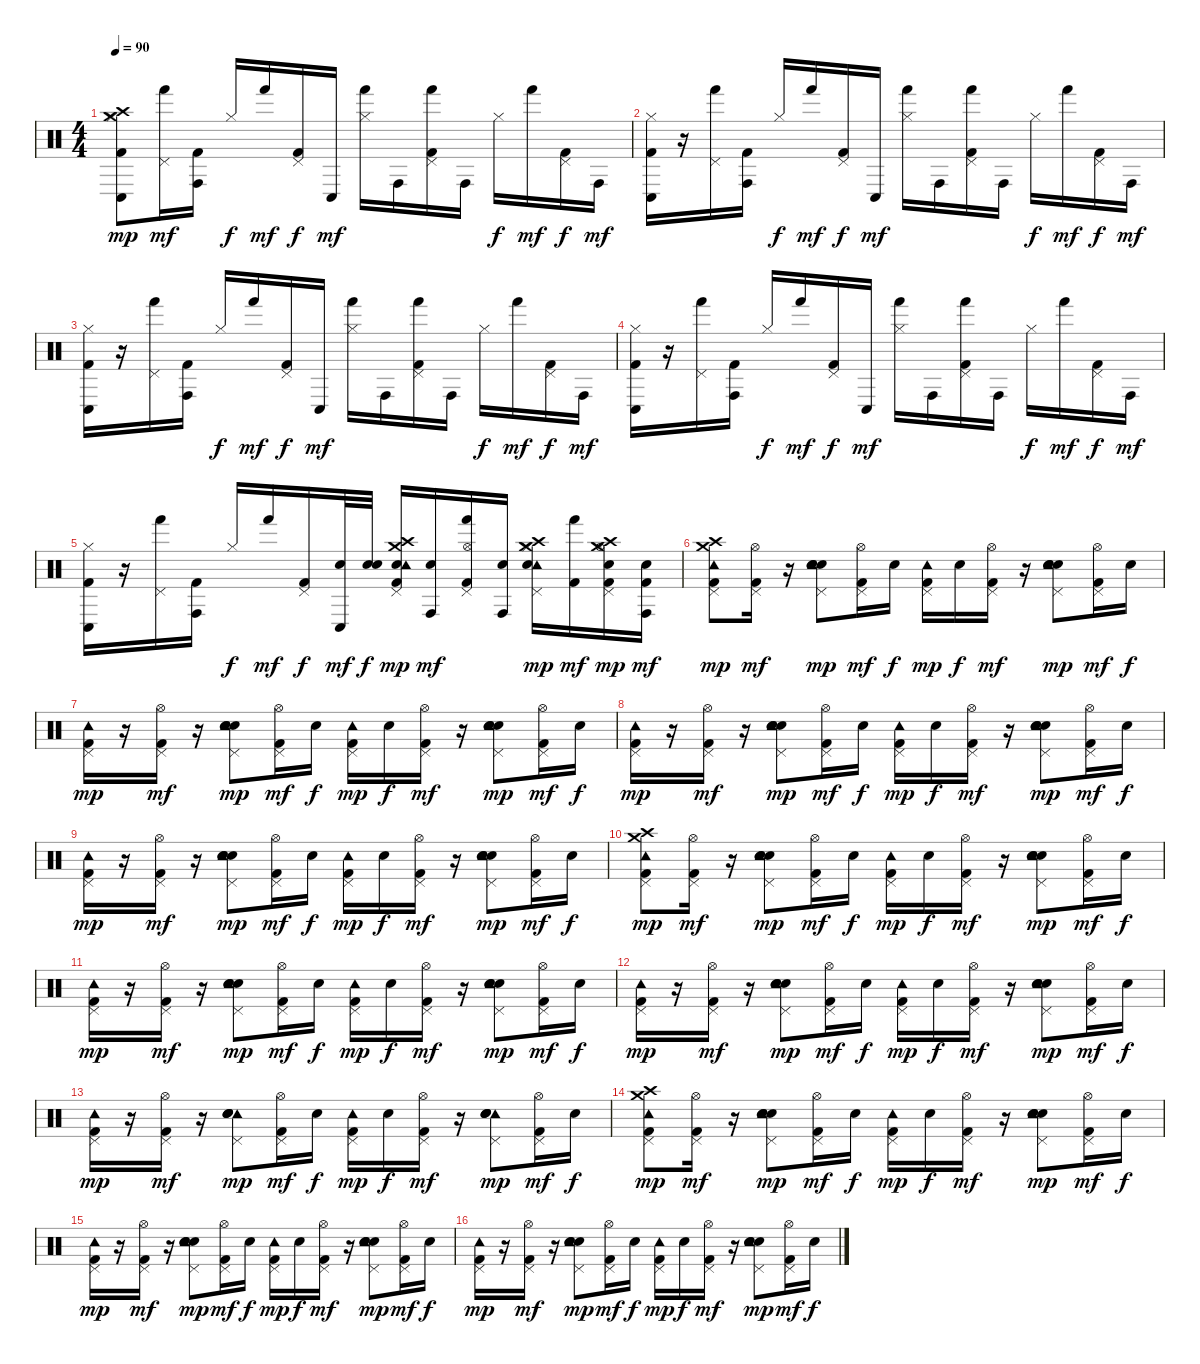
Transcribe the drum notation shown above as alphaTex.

\track "" {instrument percussion}
\staff {score}
\articulation defaults
\ts (4 4)
\tempo 90
\clef neutral
\ks c
("Hi-Hat (closed)" "Conga low (hit)" "Kick (hit) 2" "Crash high (hit)" "Crash medium (hit)").8{dy mp} ("Hand (hit)" "Pedal Hi-Hat (hit)").16{dy mf} ("Conga high (hit)" "Kick (hit) 2").16 "Hi-Hat (closed)".16{dy f} "Hand (hit)".16{dy mf} ("Pedal Hi-Hat (hit)" "Kick (hit) 2").16{dy f} "Conga low (hit)".16{dy mf} ("Hi-Hat (closed)" "Hand (hit)").16 "Conga high (hit)".16 ("Kick (hit) 2" "Hand (hit)" "Pedal Hi-Hat (hit)").16 "Conga high (hit)".16 "Hi-Hat (closed)".16{dy f} "Hand (hit)".16{dy mf} ("Pedal Hi-Hat (hit)" "Kick (hit) 2").16{dy f} "Conga high (hit)".16{dy mf} |
("Hi-Hat (closed)" "Conga low (hit)" "Kick (hit) 2").16 r.16 ("Hand (hit)" "Pedal Hi-Hat (hit)").16 ("Conga high (hit)" "Kick (hit) 2").16 "Hi-Hat (closed)".16{dy f} "Hand (hit)".16{dy mf} ("Pedal Hi-Hat (hit)" "Kick (hit) 2").16{dy f} "Conga low (hit)".16{dy mf} ("Hi-Hat (closed)" "Hand (hit)").16 "Conga high (hit)".16 ("Kick (hit) 2" "Hand (hit)" "Pedal Hi-Hat (hit)").16 "Conga high (hit)".16 "Hi-Hat (closed)".16{dy f} "Hand (hit)".16{dy mf} ("Pedal Hi-Hat (hit)" "Kick (hit) 2").16{dy f} "Conga high (hit)".16{dy mf} |
("Hi-Hat (closed)" "Conga low (hit)" "Kick (hit) 2").16 r.16 ("Hand (hit)" "Pedal Hi-Hat (hit)").16 ("Conga high (hit)" "Kick (hit) 2").16 "Hi-Hat (closed)".16{dy f} "Hand (hit)".16{dy mf} ("Pedal Hi-Hat (hit)" "Kick (hit) 2").16{dy f} "Conga low (hit)".16{dy mf} ("Hi-Hat (closed)" "Hand (hit)").16 "Conga high (hit)".16 ("Kick (hit) 2" "Hand (hit)" "Pedal Hi-Hat (hit)").16 "Conga high (hit)".16 "Hi-Hat (closed)".16{dy f} "Hand (hit)".16{dy mf} ("Pedal Hi-Hat (hit)" "Kick (hit) 2").16{dy f} "Conga high (hit)".16{dy mf} |
("Hi-Hat (closed)" "Conga low (hit)" "Kick (hit) 2").16 r.16 ("Hand (hit)" "Pedal Hi-Hat (hit)").16 ("Conga high (hit)" "Kick (hit) 2").16 "Hi-Hat (closed)".16{dy f} "Hand (hit)".16{dy mf} ("Pedal Hi-Hat (hit)" "Kick (hit) 2").16{dy f} "Conga low (hit)".16{dy mf} ("Hi-Hat (closed)" "Hand (hit)").16 "Conga high (hit)".16 ("Kick (hit) 2" "Hand (hit)" "Pedal Hi-Hat (hit)").16 "Conga high (hit)".16 "Hi-Hat (closed)".16{dy f} "Hand (hit)".16{dy mf} ("Pedal Hi-Hat (hit)" "Kick (hit) 2").16{dy f} "Conga high (hit)".16{dy mf} |
("Hi-Hat (closed)" "Conga low (hit)" "Kick (hit) 2").16 r.16 ("Hand (hit)" "Pedal Hi-Hat (hit)").16 ("Conga high (hit)" "Kick (hit) 2").16 "Hi-Hat (closed)".16{dy f} "Hand (hit)".16{dy mf} ("Pedal Hi-Hat (hit)" "Kick (hit) 2").16{dy f} ("Electric Snare (hit)" "Conga low (hit)").32{dy mf} ("Electric Snare (hit)" "Electric Snare (hit)").32{dy f} ("Kick (hit) 2" "Crash high (hit)" "Crash medium (hit)" "Electric Snare (hit)" "Tambourine (hit)" "Pedal Hi-Hat (hit)").16{dy mp} ("Electric Snare (hit)" "Conga high (hit)").16{dy mf} ("Kick (hit) 2" "Hi-Hat (open)" "Pedal Hi-Hat (hit)" "Hand (hit)").16 ("Electric Snare (hit)" "Conga high (hit)").16 ("Crash high (hit)" "Crash medium (hit)" "Tambourine (hit)" "Pedal Hi-Hat (hit)" "Electric Snare (hit)" "Hi-Hat (closed)").16{dy mp} ("Kick (hit) 2" "Hand (hit)").16{dy mf} ("Kick (hit) 2" "Hi-Hat (open)" "Pedal Hi-Hat (hit)" "Crash high (hit)" "Crash medium (hit)" "Electric Snare (hit)").16{dy mp} ("Kick (hit) 2" "Electric Snare (hit)" "Conga high (hit)").16{dy mf} |
("Kick (hit) 2" "Tambourine (hit)" "Crash high (hit)" "Crash medium (hit)" "Pedal Hi-Hat (hit)").8{dy mp} ("Kick (hit) 2" "Hi-Hat (open)" "Pedal Hi-Hat (hit)").16{dy mf} r.16 ("Electric Snare (hit)" "Snare (hit) 2" "Hand Clap (hit)" "Tambourine (hit)" "Pedal Hi-Hat (hit)").8{dy mp} ("Kick (hit) 2" "Hi-Hat (open)" "Pedal Hi-Hat (hit)").16{dy mf} "Snare (hit) 2".16{dy f} ("Kick (hit) 2" "Tambourine (hit)" "Pedal Hi-Hat (hit)").16{dy mp} "Snare (hit) 2".16{dy f} ("Kick (hit) 2" "Hi-Hat (open)" "Pedal Hi-Hat (hit)").16{dy mf} r.16 ("Electric Snare (hit)" "Snare (hit) 2" "Hand Clap (hit)" "Tambourine (hit)" "Pedal Hi-Hat (hit)").8{dy mp} ("Kick (hit) 2" "Hi-Hat (open)" "Pedal Hi-Hat (hit)").16{dy mf} "Snare (hit) 2".16{dy f} |
("Kick (hit) 2" "Tambourine (hit)" "Pedal Hi-Hat (hit)").16{dy mp} r.16 ("Kick (hit) 2" "Hi-Hat (open)" "Pedal Hi-Hat (hit)").16{dy mf} r.16 ("Electric Snare (hit)" "Hand Clap (hit)" "Snare (hit) 2" "Tambourine (hit)" "Pedal Hi-Hat (hit)").8{dy mp} ("Kick (hit) 2" "Hi-Hat (open)" "Pedal Hi-Hat (hit)").16{dy mf} "Snare (hit) 2".16{dy f} ("Kick (hit) 2" "Tambourine (hit)" "Pedal Hi-Hat (hit)").16{dy mp} "Snare (hit) 2".16{dy f} ("Kick (hit) 2" "Hi-Hat (open)" "Pedal Hi-Hat (hit)").16{dy mf} r.16 ("Electric Snare (hit)" "Hand Clap (hit)" "Snare (hit) 2" "Tambourine (hit)" "Pedal Hi-Hat (hit)").8{dy mp} ("Kick (hit) 2" "Hi-Hat (open)" "Pedal Hi-Hat (hit)").16{dy mf} "Snare (hit) 2".16{dy f} |
("Kick (hit) 2" "Tambourine (hit)" "Pedal Hi-Hat (hit)").16{dy mp} r.16 ("Kick (hit) 2" "Hi-Hat (open)" "Pedal Hi-Hat (hit)").16{dy mf} r.16 ("Electric Snare (hit)" "Hand Clap (hit)" "Snare (hit) 2" "Tambourine (hit)" "Pedal Hi-Hat (hit)").8{dy mp} ("Kick (hit) 2" "Hi-Hat (open)" "Pedal Hi-Hat (hit)").16{dy mf} "Snare (hit) 2".16{dy f} ("Kick (hit) 2" "Tambourine (hit)" "Pedal Hi-Hat (hit)").16{dy mp} "Snare (hit) 2".16{dy f} ("Kick (hit) 2" "Hi-Hat (open)" "Pedal Hi-Hat (hit)").16{dy mf} r.16 ("Electric Snare (hit)" "Hand Clap (hit)" "Snare (hit) 2" "Tambourine (hit)" "Pedal Hi-Hat (hit)").8{dy mp} ("Kick (hit) 2" "Hi-Hat (open)" "Pedal Hi-Hat (hit)").16{dy mf} "Snare (hit) 2".16{dy f} |
("Kick (hit) 2" "Tambourine (hit)" "Pedal Hi-Hat (hit)").16{dy mp} r.16 ("Kick (hit) 2" "Hi-Hat (open)" "Pedal Hi-Hat (hit)").16{dy mf} r.16 ("Electric Snare (hit)" "Hand Clap (hit)" "Snare (hit) 2" "Tambourine (hit)" "Pedal Hi-Hat (hit)").8{dy mp} ("Kick (hit) 2" "Hi-Hat (open)" "Pedal Hi-Hat (hit)").16{dy mf} "Snare (hit) 2".16{dy f} ("Kick (hit) 2" "Tambourine (hit)" "Pedal Hi-Hat (hit)").16{dy mp} "Snare (hit) 2".16{dy f} ("Kick (hit) 2" "Hi-Hat (open)" "Pedal Hi-Hat (hit)").16{dy mf} r.16 ("Electric Snare (hit)" "Hand Clap (hit)" "Snare (hit) 2" "Tambourine (hit)" "Pedal Hi-Hat (hit)").8{dy mp} ("Kick (hit) 2" "Hi-Hat (open)" "Pedal Hi-Hat (hit)").16{dy mf} "Snare (hit) 2".16{dy f} |
("Kick (hit) 2" "Tambourine (hit)" "Crash high (hit)" "Crash medium (hit)" "Pedal Hi-Hat (hit)").8{dy mp} ("Kick (hit) 2" "Hi-Hat (open)" "Pedal Hi-Hat (hit)").16{dy mf} r.16 ("Electric Snare (hit)" "Snare (hit) 2" "Hand Clap (hit)" "Tambourine (hit)" "Pedal Hi-Hat (hit)").8{dy mp} ("Kick (hit) 2" "Hi-Hat (open)" "Pedal Hi-Hat (hit)").16{dy mf} "Snare (hit) 2".16{dy f} ("Kick (hit) 2" "Tambourine (hit)" "Pedal Hi-Hat (hit)").16{dy mp} "Snare (hit) 2".16{dy f} ("Kick (hit) 2" "Hi-Hat (open)" "Pedal Hi-Hat (hit)").16{dy mf} r.16 ("Electric Snare (hit)" "Snare (hit) 2" "Hand Clap (hit)" "Tambourine (hit)" "Pedal Hi-Hat (hit)").8{dy mp} ("Kick (hit) 2" "Hi-Hat (open)" "Pedal Hi-Hat (hit)").16{dy mf} "Snare (hit) 2".16{dy f} |
("Kick (hit) 2" "Tambourine (hit)" "Pedal Hi-Hat (hit)").16{dy mp} r.16 ("Kick (hit) 2" "Hi-Hat (open)" "Pedal Hi-Hat (hit)").16{dy mf} r.16 ("Electric Snare (hit)" "Hand Clap (hit)" "Snare (hit) 2" "Tambourine (hit)" "Pedal Hi-Hat (hit)").8{dy mp} ("Kick (hit) 2" "Hi-Hat (open)" "Pedal Hi-Hat (hit)").16{dy mf} "Snare (hit) 2".16{dy f} ("Kick (hit) 2" "Tambourine (hit)" "Pedal Hi-Hat (hit)").16{dy mp} "Snare (hit) 2".16{dy f} ("Kick (hit) 2" "Hi-Hat (open)" "Pedal Hi-Hat (hit)").16{dy mf} r.16 ("Electric Snare (hit)" "Hand Clap (hit)" "Snare (hit) 2" "Tambourine (hit)" "Pedal Hi-Hat (hit)").8{dy mp} ("Kick (hit) 2" "Hi-Hat (open)" "Pedal Hi-Hat (hit)").16{dy mf} "Snare (hit) 2".16{dy f} |
("Kick (hit) 2" "Tambourine (hit)" "Pedal Hi-Hat (hit)").16{dy mp} r.16 ("Kick (hit) 2" "Hi-Hat (open)" "Pedal Hi-Hat (hit)").16{dy mf} r.16 ("Electric Snare (hit)" "Hand Clap (hit)" "Snare (hit) 2" "Tambourine (hit)" "Pedal Hi-Hat (hit)").8{dy mp} ("Kick (hit) 2" "Hi-Hat (open)" "Pedal Hi-Hat (hit)").16{dy mf} "Snare (hit) 2".16{dy f} ("Kick (hit) 2" "Tambourine (hit)" "Pedal Hi-Hat (hit)").16{dy mp} "Snare (hit) 2".16{dy f} ("Kick (hit) 2" "Hi-Hat (open)" "Pedal Hi-Hat (hit)").16{dy mf} r.16 ("Electric Snare (hit)" "Hand Clap (hit)" "Snare (hit) 2" "Tambourine (hit)" "Pedal Hi-Hat (hit)").8{dy mp} ("Kick (hit) 2" "Hi-Hat (open)" "Pedal Hi-Hat (hit)").16{dy mf} "Snare (hit) 2".16{dy f} |
("Tambourine (hit)" "Pedal Hi-Hat (hit)" "Kick (hit) 2").16{dy mp} r.16 ("Hi-Hat (open)" "Pedal Hi-Hat (hit)" "Kick (hit) 2").16{dy mf} r.16 ("Tambourine (hit)" "Pedal Hi-Hat (hit)" "Electric Snare (hit)" "Hand Clap (hit)" "Snare (hit) 2").8{dy mp} ("Hi-Hat (open)" "Pedal Hi-Hat (hit)" "Kick (hit) 2").16{dy mf} "Snare (hit) 2".16{dy f} ("Tambourine (hit)" "Pedal Hi-Hat (hit)" "Kick (hit) 2").16{dy mp} "Snare (hit) 2".16{dy f} ("Hi-Hat (open)" "Pedal Hi-Hat (hit)" "Kick (hit) 2").16{dy mf} r.16 ("Tambourine (hit)" "Pedal Hi-Hat (hit)" "Electric Snare (hit)" "Hand Clap (hit)" "Snare (hit) 2").8{dy mp} ("Hi-Hat (open)" "Pedal Hi-Hat (hit)" "Kick (hit) 2").16{dy mf} "Snare (hit) 2".16{dy f} |
("Kick (hit) 2" "Tambourine (hit)" "Crash high (hit)" "Crash medium (hit)" "Pedal Hi-Hat (hit)").8{dy mp} ("Kick (hit) 2" "Hi-Hat (open)" "Pedal Hi-Hat (hit)").16{dy mf} r.16 ("Electric Snare (hit)" "Snare (hit) 2" "Hand Clap (hit)" "Tambourine (hit)" "Pedal Hi-Hat (hit)").8{dy mp} ("Kick (hit) 2" "Hi-Hat (open)" "Pedal Hi-Hat (hit)").16{dy mf} "Snare (hit) 2".16{dy f} ("Kick (hit) 2" "Tambourine (hit)" "Pedal Hi-Hat (hit)").16{dy mp} "Snare (hit) 2".16{dy f} ("Kick (hit) 2" "Hi-Hat (open)" "Pedal Hi-Hat (hit)").16{dy mf} r.16 ("Electric Snare (hit)" "Snare (hit) 2" "Hand Clap (hit)" "Tambourine (hit)" "Pedal Hi-Hat (hit)").8{dy mp} ("Kick (hit) 2" "Hi-Hat (open)" "Pedal Hi-Hat (hit)").16{dy mf} "Snare (hit) 2".16{dy f} |
("Kick (hit) 2" "Tambourine (hit)" "Pedal Hi-Hat (hit)").16{dy mp} r.16 ("Kick (hit) 2" "Hi-Hat (open)" "Pedal Hi-Hat (hit)").16{dy mf} r.16 ("Electric Snare (hit)" "Hand Clap (hit)" "Snare (hit) 2" "Tambourine (hit)" "Pedal Hi-Hat (hit)").8{dy mp} ("Kick (hit) 2" "Hi-Hat (open)" "Pedal Hi-Hat (hit)").16{dy mf} "Snare (hit) 2".16{dy f} ("Kick (hit) 2" "Tambourine (hit)" "Pedal Hi-Hat (hit)").16{dy mp} "Snare (hit) 2".16{dy f} ("Kick (hit) 2" "Hi-Hat (open)" "Pedal Hi-Hat (hit)").16{dy mf} r.16 ("Electric Snare (hit)" "Hand Clap (hit)" "Snare (hit) 2" "Tambourine (hit)" "Pedal Hi-Hat (hit)").8{dy mp} ("Kick (hit) 2" "Hi-Hat (open)" "Pedal Hi-Hat (hit)").16{dy mf} "Snare (hit) 2".16{dy f} |
("Kick (hit) 2" "Tambourine (hit)" "Pedal Hi-Hat (hit)").16{dy mp} r.16 ("Kick (hit) 2" "Hi-Hat (open)" "Pedal Hi-Hat (hit)").16{dy mf} r.16 ("Electric Snare (hit)" "Hand Clap (hit)" "Snare (hit) 2" "Tambourine (hit)" "Pedal Hi-Hat (hit)").8{dy mp} ("Kick (hit) 2" "Hi-Hat (open)" "Pedal Hi-Hat (hit)").16{dy mf} "Snare (hit) 2".16{dy f} ("Kick (hit) 2" "Tambourine (hit)" "Pedal Hi-Hat (hit)").16{dy mp} "Snare (hit) 2".16{dy f} ("Kick (hit) 2" "Hi-Hat (open)" "Pedal Hi-Hat (hit)").16{dy mf} r.16 ("Electric Snare (hit)" "Hand Clap (hit)" "Snare (hit) 2" "Tambourine (hit)" "Pedal Hi-Hat (hit)").8{dy mp} ("Kick (hit) 2" "Hi-Hat (open)" "Pedal Hi-Hat (hit)").16{dy mf} "Snare (hit) 2".16{dy f}
